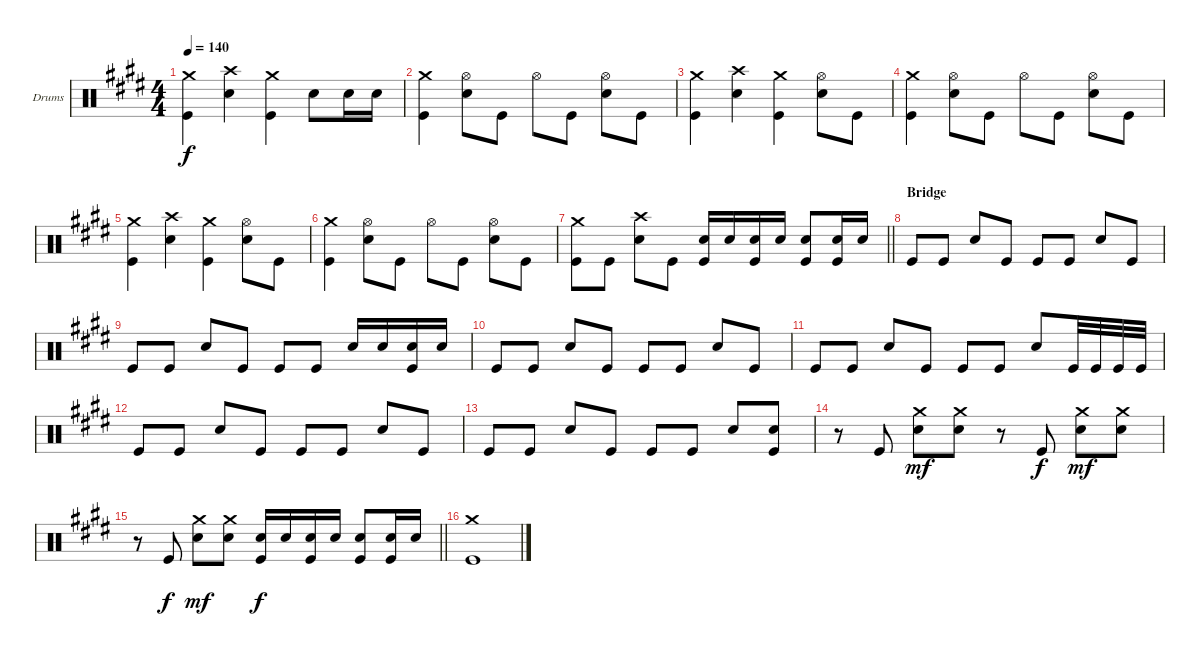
\bracketExtendMode groupsimilarinstruments
\firstSystemTrackNameOrientation horizontal
\otherSystemsTrackNameOrientation horizontal
\track ("Drumkit" "Drums") {instrument percussion}
\staff {score}
\articulation defaults
\ts (4 4)
\tempo 140
\clef neutral
\ks e
("Crash medium (hit)" "Kick (hit)").4{dy f} ("Crash high (hit)" "Snare (hit) 2").4 ("Crash medium (hit)" "Kick (hit)").4 "Snare (hit) 2".8 "Snare (hit) 2".16 "Snare (hit) 2".16 |
("Crash medium (hit)" "Kick (hit)").4 ("Hi-Hat (open)" "Snare (hit) 2").8 "Kick (hit)".8 "Hi-Hat (open)".8 "Kick (hit)".8 ("Hi-Hat (open)" "Snare (hit) 2").8 "Kick (hit)".8 |
("Crash medium (hit)" "Kick (hit)").4 ("Crash high (hit)" "Snare (hit) 2").4 ("Crash medium (hit)" "Kick (hit)").4 ("Hi-Hat (open)" "Snare (hit) 2").8 "Kick (hit)".8 |
("Crash medium (hit)" "Kick (hit)").4 ("Hi-Hat (open)" "Snare (hit) 2").8 "Kick (hit)".8 "Hi-Hat (open)".8 "Kick (hit)".8 ("Hi-Hat (open)" "Snare (hit) 2").8 "Kick (hit)".8 |
("Crash medium (hit)" "Kick (hit)").4 ("Crash high (hit)" "Snare (hit) 2").4 ("Crash medium (hit)" "Kick (hit)").4 ("Hi-Hat (open)" "Snare (hit) 2").8 "Kick (hit)".8 |
("Crash medium (hit)" "Kick (hit)").4 ("Hi-Hat (open)" "Snare (hit) 2").8 "Kick (hit)".8 "Hi-Hat (open)".8 "Kick (hit)".8 ("Hi-Hat (open)" "Snare (hit) 2").8 "Kick (hit)".8 |
\barLineRight lightlight
("Crash medium (hit)" "Kick (hit)").8 "Kick (hit)".8 ("Crash high (hit)" "Snare (hit) 2").8 "Kick (hit)".8 ("Snare (hit) 2" "Kick (hit)").16 "Snare (hit) 2".16 ("Snare (hit) 2" "Kick (hit)").16 "Snare (hit) 2".16 ("Snare (hit) 2" "Kick (hit)").8 ("Snare (hit) 2" "Kick (hit)").16 "Snare (hit) 2".16 |
\section ("" "Bridge")
"Kick (hit)".8 "Kick (hit)".8 "Snare (hit) 2".8 "Kick (hit)".8 "Kick (hit)".8 "Kick (hit)".8 "Snare (hit) 2".8 "Kick (hit)".8 |
"Kick (hit)".8 "Kick (hit)".8 "Snare (hit) 2".8 "Kick (hit)".8 "Kick (hit)".8 "Kick (hit)".8 "Snare (hit) 2".16 "Snare (hit) 2".16 ("Snare (hit) 2" "Kick (hit)").16 "Snare (hit) 2".16 |
"Kick (hit)".8 "Kick (hit)".8 "Snare (hit) 2".8 "Kick (hit)".8 "Kick (hit)".8 "Kick (hit)".8 "Snare (hit) 2".8 "Kick (hit)".8 |
"Kick (hit)".8 "Kick (hit)".8 "Snare (hit) 2".8 "Kick (hit)".8 "Kick (hit)".8 "Kick (hit)".8 "Snare (hit) 2".8 "Kick (hit)".32 "Kick (hit)".32 "Kick (hit)".32 "Kick (hit)".32 |
"Kick (hit)".8 "Kick (hit)".8 "Snare (hit) 2".8 "Kick (hit)".8 "Kick (hit)".8 "Kick (hit)".8 "Snare (hit) 2".8 "Kick (hit)".8 |
"Kick (hit)".8 "Kick (hit)".8 "Snare (hit) 2".8 "Kick (hit)".8 "Kick (hit)".8 "Kick (hit)".8 "Snare (hit) 2".8 ("Snare (hit) 2" "Kick (hit)").8 |
r.8 "Kick (hit)".8 ("Crash medium (hit)" "Snare (hit) 2").8{dy mf} ("Crash medium (hit)" "Snare (hit) 2").8 r.8 "Kick (hit)".8{dy f} ("Crash medium (hit)" "Snare (hit) 2").8{dy mf} ("Crash medium (hit)" "Snare (hit) 2").8 |
\barLineRight lightlight
r.8 "Kick (hit)".8{dy f} ("Crash medium (hit)" "Snare (hit) 2").8{dy mf} ("Crash medium (hit)" "Snare (hit) 2").8 ("Snare (hit) 2" "Kick (hit)").16{dy f} "Snare (hit) 2".16 ("Snare (hit) 2" "Kick (hit)").16 "Snare (hit) 2".16 ("Snare (hit) 2" "Kick (hit)").8 ("Snare (hit) 2" "Kick (hit)").16 "Snare (hit) 2".16 |
("Crash medium (hit)" "Kick (hit)").1
